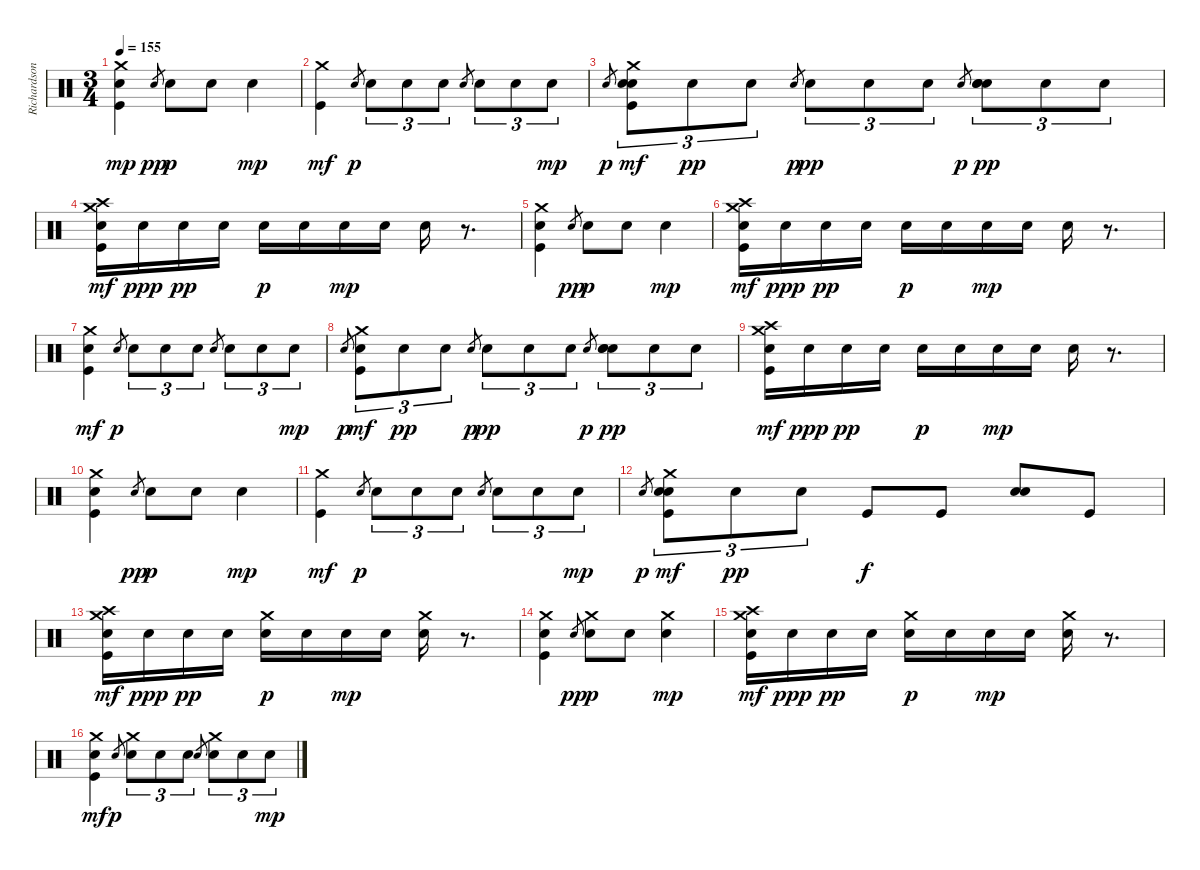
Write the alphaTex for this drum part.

\track ("Richardson" "Richardson") {instrument percussion}
\staff {score}
\articulation defaults
\ts (3 4)
\tempo 155
\clef neutral
\ks c
("Crash medium (hit)" "Electric Snare (hit)" "Kick (hit)").4{dy mp} "Snare (hit) 2".8{gr dy pp} "Snare (hit) 2".8{dy p} "Snare (hit) 2".8 "Snare (hit) 2".4{dy mp} |
("Crash medium (hit)" "Kick (hit)").4{dy mf} "Snare (hit) 2".8{gr dy p} "Snare (hit) 2".8{tu (3 2)} "Snare (hit) 2".8{tu (3 2)} "Snare (hit) 2".8{tu (3 2)} "Snare (hit) 2".8{gr} "Snare (hit) 2".8{tu (3 2)} "Snare (hit) 2".8{tu (3 2)} "Snare (hit) 2".8{tu (3 2) dy mp} |
"Snare (hit) 2".8{gr dy p} ("Crash medium (hit)" "Electric Snare (hit)" "Snare (hit) 2" "Kick (hit)").8{tu (3 2) dy mf} "Snare (hit) 2".8{tu (3 2) dy pp} "Snare (hit) 2".8{tu (3 2)} "Snare (hit) 2".8{gr dy p} "Snare (hit) 2".8{tu (3 2) dy pp} "Snare (hit) 2".8{tu (3 2)} "Snare (hit) 2".8{tu (3 2)} "Snare (hit) 2".8{gr dy p} ("Electric Snare (hit)" "Electric Snare (hit)" "Snare (hit) 2").8{tu (3 2) dy pp} "Snare (hit) 2".8{tu (3 2)} "Snare (hit) 2".8{tu (3 2)} |
("Crash medium (hit)" "Crash high (hit)" "Snare (hit) 2" "Kick (hit)").16{dy mf} "Snare (hit) 2".16{dy ppp} "Snare (hit) 2".16{dy pp} "Snare (hit) 2".16 "Snare (hit) 2".16{dy p} "Snare (hit) 2".16 "Snare (hit) 2".16{dy mp} "Snare (hit) 2".16 "Snare (hit) 2".16 r.8{d} |
("Crash medium (hit)" "Electric Snare (hit)" "Kick (hit)").4 "Snare (hit) 2".8{gr dy pp} "Snare (hit) 2".8{dy p} "Snare (hit) 2".8 "Snare (hit) 2".4{dy mp} |
("Crash medium (hit)" "Crash high (hit)" "Snare (hit) 2" "Kick (hit)").16{dy mf} "Snare (hit) 2".16{dy ppp} "Snare (hit) 2".16{dy pp} "Snare (hit) 2".16 "Snare (hit) 2".16{dy p} "Snare (hit) 2".16 "Snare (hit) 2".16{dy mp} "Snare (hit) 2".16 "Snare (hit) 2".16 r.8{d} |
("Crash medium (hit)" "Electric Snare (hit)" "Kick (hit)").4{dy mf} "Snare (hit) 2".8{gr dy p} "Snare (hit) 2".8{tu (3 2)} "Snare (hit) 2".8{tu (3 2)} "Snare (hit) 2".8{tu (3 2)} "Snare (hit) 2".8{gr} "Snare (hit) 2".8{tu (3 2)} "Snare (hit) 2".8{tu (3 2)} "Snare (hit) 2".8{tu (3 2) dy mp} |
"Snare (hit) 2".8{gr dy p} ("Crash medium (hit)" "Snare (hit) 2" "Kick (hit)").8{tu (3 2) dy mf} "Snare (hit) 2".8{tu (3 2) dy pp} "Snare (hit) 2".8{tu (3 2)} "Snare (hit) 2".8{gr dy p} "Snare (hit) 2".8{tu (3 2) dy pp} "Snare (hit) 2".8{tu (3 2)} "Snare (hit) 2".8{tu (3 2)} "Snare (hit) 2".8{gr dy p} ("Electric Snare (hit)" "Electric Snare (hit)" "Snare (hit) 2").8{tu (3 2) dy pp} "Snare (hit) 2".8{tu (3 2)} "Snare (hit) 2".8{tu (3 2)} |
("Crash medium (hit)" "Crash high (hit)" "Snare (hit) 2" "Kick (hit)").16{dy mf} "Snare (hit) 2".16{dy ppp} "Snare (hit) 2".16{dy pp} "Snare (hit) 2".16 "Snare (hit) 2".16{dy p} "Snare (hit) 2".16 "Snare (hit) 2".16{dy mp} "Snare (hit) 2".16 "Snare (hit) 2".16 r.8{d} |
("Crash medium (hit)" "Electric Snare (hit)" "Kick (hit)").4 "Snare (hit) 2".8{gr dy pp} "Snare (hit) 2".8{dy p} "Snare (hit) 2".8 "Snare (hit) 2".4{dy mp} |
("Crash medium (hit)" "Kick (hit)").4{dy mf} "Snare (hit) 2".8{gr dy p} "Snare (hit) 2".8{tu (3 2)} "Snare (hit) 2".8{tu (3 2)} "Snare (hit) 2".8{tu (3 2)} "Snare (hit) 2".8{gr} "Snare (hit) 2".8{tu (3 2)} "Snare (hit) 2".8{tu (3 2)} "Snare (hit) 2".8{tu (3 2) dy mp} |
"Snare (hit) 2".8{gr dy p} ("Crash medium (hit)" "Electric Snare (hit)" "Snare (hit) 2" "Kick (hit)").8{tu (3 2) dy mf} "Snare (hit) 2".8{tu (3 2) dy pp} "Snare (hit) 2".8{tu (3 2)} "Kick (hit)".8{dy f} "Kick (hit)".8 ("Electric Snare (hit)" "Electric Snare (hit)").8 "Kick (hit)".8 |
("Crash medium (hit)" "Crash high (hit)" "Snare (hit) 2" "Kick (hit)").16{dy mf volume 16} "Snare (hit) 2".16{dy ppp} "Snare (hit) 2".16{dy pp} "Snare (hit) 2".16 ("Crash medium (hit)" "Snare (hit) 2").16{dy p} "Snare (hit) 2".16 "Snare (hit) 2".16{dy mp} "Snare (hit) 2".16 ("Crash medium (hit)" "Snare (hit) 2").16 r.8{d} |
("Crash medium (hit)" "Electric Snare (hit)" "Kick (hit)").4 "Snare (hit) 2".8{gr dy pp} ("Crash medium (hit)" "Snare (hit) 2").8{dy p} "Snare (hit) 2".8 ("Crash medium (hit)" "Snare (hit) 2").4{dy mp} |
("Crash medium (hit)" "Crash high (hit)" "Snare (hit) 2" "Kick (hit)").16{dy mf} "Snare (hit) 2".16{dy ppp} "Snare (hit) 2".16{dy pp} "Snare (hit) 2".16 ("Crash medium (hit)" "Snare (hit) 2").16{dy p} "Snare (hit) 2".16 "Snare (hit) 2".16{dy mp} "Snare (hit) 2".16 ("Crash medium (hit)" "Snare (hit) 2").16 r.8{d} |
("Crash medium (hit)" "Electric Snare (hit)" "Kick (hit)").4{dy mf} "Snare (hit) 2".8{gr dy p} ("Crash medium (hit)" "Snare (hit) 2").8{tu (3 2)} "Snare (hit) 2".8{tu (3 2)} "Snare (hit) 2".8{tu (3 2)} "Snare (hit) 2".8{gr} ("Crash medium (hit)" "Snare (hit) 2").8{tu (3 2)} "Snare (hit) 2".8{tu (3 2)} "Snare (hit) 2".8{tu (3 2) dy mp}
